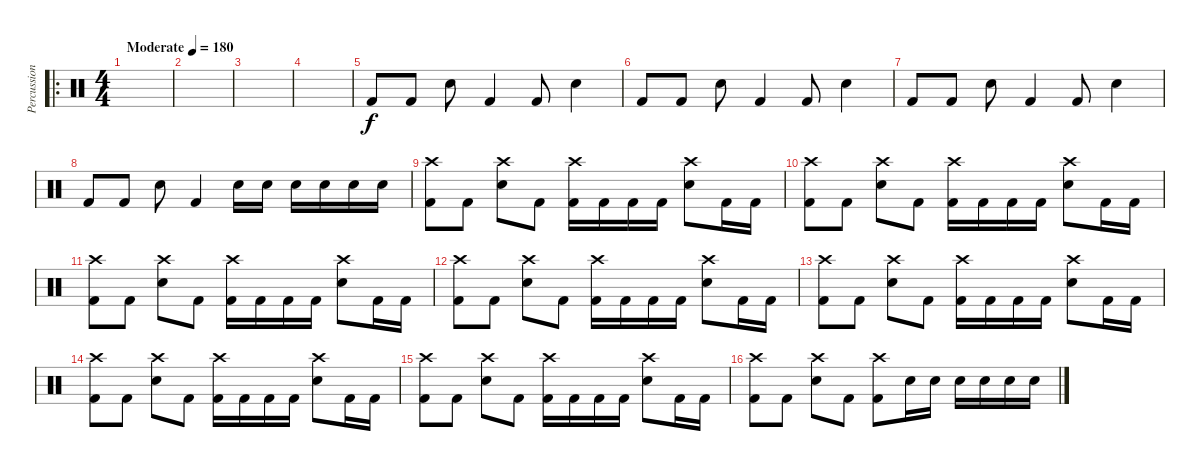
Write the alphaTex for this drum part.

\track ("Percussion" "Percussion") {instrument percussion}
\staff {score}
\articulation defaults
\ro
\ts (4 4)
\tempo (180 "Moderate")
\clef neutral
\ks c
|
|
|
|
"Kick (hit) 2".8 "Kick (hit) 2".8 "Electric Snare (hit)".8 "Kick (hit) 2".4 "Kick (hit) 2".8 "Electric Snare (hit)".4 |
"Kick (hit) 2".8 "Kick (hit) 2".8 "Electric Snare (hit)".8 "Kick (hit) 2".4 "Kick (hit) 2".8 "Electric Snare (hit)".4 |
"Kick (hit) 2".8 "Kick (hit) 2".8 "Electric Snare (hit)".8 "Kick (hit) 2".4 "Kick (hit) 2".8 "Electric Snare (hit)".4 |
"Kick (hit) 2".8 "Kick (hit) 2".8 "Electric Snare (hit)".8 "Kick (hit) 2".4 "Electric Snare (hit)".16 "Electric Snare (hit)".16 "Electric Snare (hit)".16 "Electric Snare (hit)".16 "Electric Snare (hit)".16 "Electric Snare (hit)".16 |
("Crash high (hit)" "Kick (hit) 2").8 "Kick (hit) 2".8 ("Crash high (hit)" "Electric Snare (hit)").8 "Kick (hit) 2".8 ("Crash high (hit)" "Kick (hit) 2").16 "Kick (hit) 2".16 "Kick (hit) 2".16 "Kick (hit) 2".16 ("Crash high (hit)" "Electric Snare (hit)").8 "Kick (hit) 2".16 "Kick (hit) 2".16 |
("Crash high (hit)" "Kick (hit) 2").8 "Kick (hit) 2".8 ("Crash high (hit)" "Electric Snare (hit)").8 "Kick (hit) 2".8 ("Crash high (hit)" "Kick (hit) 2").16 "Kick (hit) 2".16 "Kick (hit) 2".16 "Kick (hit) 2".16 ("Crash high (hit)" "Electric Snare (hit)").8 "Kick (hit) 2".16 "Kick (hit) 2".16 |
("Crash high (hit)" "Kick (hit) 2").8 "Kick (hit) 2".8 ("Crash high (hit)" "Electric Snare (hit)").8 "Kick (hit) 2".8 ("Crash high (hit)" "Kick (hit) 2").16 "Kick (hit) 2".16 "Kick (hit) 2".16 "Kick (hit) 2".16 ("Crash high (hit)" "Electric Snare (hit)").8 "Kick (hit) 2".16 "Kick (hit) 2".16 |
("Crash high (hit)" "Kick (hit) 2").8 "Kick (hit) 2".8 ("Crash high (hit)" "Electric Snare (hit)").8 "Kick (hit) 2".8 ("Crash high (hit)" "Kick (hit) 2").16 "Kick (hit) 2".16 "Kick (hit) 2".16 "Kick (hit) 2".16 ("Crash high (hit)" "Electric Snare (hit)").8 "Kick (hit) 2".16 "Kick (hit) 2".16 |
("Crash high (hit)" "Kick (hit) 2").8 "Kick (hit) 2".8 ("Crash high (hit)" "Electric Snare (hit)").8 "Kick (hit) 2".8 ("Crash high (hit)" "Kick (hit) 2").16 "Kick (hit) 2".16 "Kick (hit) 2".16 "Kick (hit) 2".16 ("Crash high (hit)" "Electric Snare (hit)").8 "Kick (hit) 2".16 "Kick (hit) 2".16 |
("Crash high (hit)" "Kick (hit) 2").8 "Kick (hit) 2".8 ("Crash high (hit)" "Electric Snare (hit)").8 "Kick (hit) 2".8 ("Crash high (hit)" "Kick (hit) 2").16 "Kick (hit) 2".16 "Kick (hit) 2".16 "Kick (hit) 2".16 ("Crash high (hit)" "Electric Snare (hit)").8 "Kick (hit) 2".16 "Kick (hit) 2".16 |
("Crash high (hit)" "Kick (hit) 2").8 "Kick (hit) 2".8 ("Crash high (hit)" "Electric Snare (hit)").8 "Kick (hit) 2".8 ("Crash high (hit)" "Kick (hit) 2").16 "Kick (hit) 2".16 "Kick (hit) 2".16 "Kick (hit) 2".16 ("Crash high (hit)" "Electric Snare (hit)").8 "Kick (hit) 2".16 "Kick (hit) 2".16 |
("Crash high (hit)" "Kick (hit) 2").8 "Kick (hit) 2".8 ("Crash high (hit)" "Electric Snare (hit)").8 "Kick (hit) 2".8 ("Crash high (hit)" "Kick (hit) 2").8 "Electric Snare (hit)".16 "Electric Snare (hit)".16 "Electric Snare (hit)".16 "Electric Snare (hit)".16 "Electric Snare (hit)".16 "Electric Snare (hit)".16
